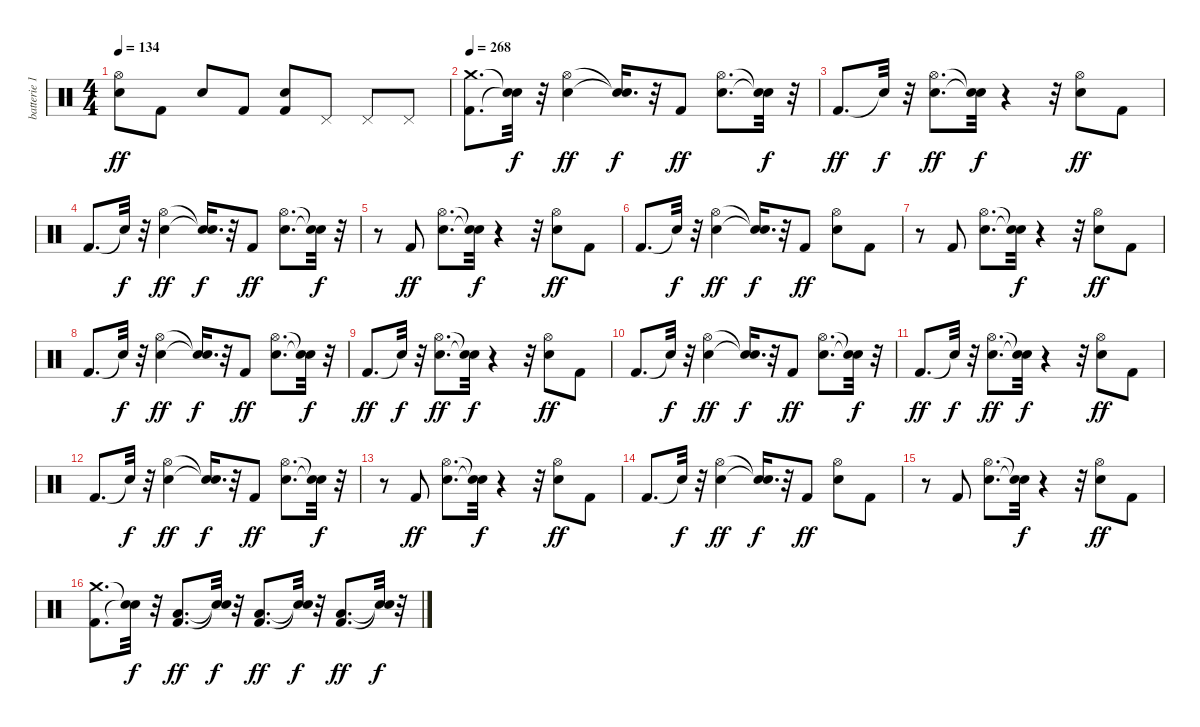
\track ("batterie 1" "batterie 1") {instrument percussion}
\staff {score}
\articulation defaults
\ts (4 4)
\tempo 134
\clef neutral
\ks c
("Electric Snare (hit)" "Hi-Hat (open)").8{dy ff} "Kick (hit) 2".8 "Electric Snare (hit)".8 "Kick (hit) 2".8 ("Kick (hit) 2" "Electric Snare (hit)").8 "Pedal Hi-Hat (hit)".8 "Pedal Hi-Hat (hit)".8 "Pedal Hi-Hat (hit)".8 |
\tempo 268
("Kick (hit) 2" "Crash medium (hit)").8{d} ("Snare (hit)"{t} "Snare (hit)"{t}).32{dy f} r.32 ("Electric Snare (hit)" "Hi-Hat (open)").4{dy ff} ("Snare (hit)"{t} "Snare (hit)"{t}).16{d dy f} r.32 "Kick (hit) 2".8{dy ff} ("Electric Snare (hit)" "Hi-Hat (open)").8{d} ("Snare (hit)"{t} "Snare (hit)"{t}).32{dy f} r.32 |
"Kick (hit) 2".8{d dy ff} "Snare (hit)"{t}.32{dy f} r.32 ("Electric Snare (hit)" "Hi-Hat (open)").8{d dy ff} ("Snare (hit)"{t} "Snare (hit)"{t}).32{dy f} r.4 r.32 ("Electric Snare (hit)" "Hi-Hat (open)").8{dy ff} "Kick (hit) 2".8 |
"Kick (hit) 2".8{d} "Snare (hit)"{t}.32{dy f} r.32 ("Electric Snare (hit)" "Hi-Hat (open)").4{dy ff} ("Snare (hit)"{t} "Snare (hit)"{t}).16{d dy f} r.32 "Kick (hit) 2".8{dy ff} ("Electric Snare (hit)" "Hi-Hat (open)").8{d} ("Snare (hit)"{t} "Snare (hit)"{t}).32{dy f} r.32 |
r.8 "Kick (hit) 2".8{dy ff} ("Electric Snare (hit)" "Hi-Hat (open)").8{d} ("Snare (hit)"{t} "Snare (hit)"{t}).32{dy f} r.4 r.32 ("Electric Snare (hit)" "Hi-Hat (open)").8{dy ff} "Kick (hit) 2".8 |
"Kick (hit) 2".8{d} "Snare (hit)"{t}.32{dy f} r.32 ("Electric Snare (hit)" "Hi-Hat (open)").4{dy ff} ("Snare (hit)"{t} "Snare (hit)"{t}).16{d dy f} r.32 "Kick (hit) 2".8{dy ff} ("Electric Snare (hit)" "Hi-Hat (open)").8 "Kick (hit) 2".8 |
r.8 "Kick (hit) 2".8 ("Electric Snare (hit)" "Hi-Hat (open)").8{d} ("Snare (hit)"{t} "Snare (hit)"{t}).32{dy f} r.4 r.32 ("Electric Snare (hit)" "Hi-Hat (open)").8{dy ff} "Kick (hit) 2".8 |
"Kick (hit) 2".8{d} "Snare (hit)"{t}.32{dy f} r.32 ("Electric Snare (hit)" "Hi-Hat (open)").4{dy ff} ("Snare (hit)"{t} "Snare (hit)"{t}).16{d dy f} r.32 "Kick (hit) 2".8{dy ff} ("Electric Snare (hit)" "Hi-Hat (open)").8{d} ("Snare (hit)"{t} "Snare (hit)"{t}).32{dy f} r.32 |
"Kick (hit) 2".8{d dy ff} "Snare (hit)"{t}.32{dy f} r.32 ("Electric Snare (hit)" "Hi-Hat (open)").8{d dy ff} ("Snare (hit)"{t} "Snare (hit)"{t}).32{dy f} r.4 r.32 ("Electric Snare (hit)" "Hi-Hat (open)").8{dy ff} "Kick (hit) 2".8 |
"Kick (hit) 2".8{d} "Snare (hit)"{t}.32{dy f} r.32 ("Electric Snare (hit)" "Hi-Hat (open)").4{dy ff} ("Snare (hit)"{t} "Snare (hit)"{t}).16{d dy f} r.32 "Kick (hit) 2".8{dy ff} ("Electric Snare (hit)" "Hi-Hat (open)").8{d} ("Snare (hit)"{t} "Snare (hit)"{t}).32{dy f} r.32 |
"Kick (hit) 2".8{d dy ff} "Snare (hit)"{t}.32{dy f} r.32 ("Electric Snare (hit)" "Hi-Hat (open)").8{d dy ff} ("Snare (hit)"{t} "Snare (hit)"{t}).32{dy f} r.4 r.32 ("Electric Snare (hit)" "Hi-Hat (open)").8{dy ff} "Kick (hit) 2".8 |
"Kick (hit) 2".8{d} "Snare (hit)"{t}.32{dy f} r.32 ("Electric Snare (hit)" "Hi-Hat (open)").4{dy ff} ("Snare (hit)"{t} "Snare (hit)"{t}).16{d dy f} r.32 "Kick (hit) 2".8{dy ff} ("Electric Snare (hit)" "Hi-Hat (open)").8{d} ("Snare (hit)"{t} "Snare (hit)"{t}).32{dy f} r.32 |
r.8 "Kick (hit) 2".8{dy ff} ("Electric Snare (hit)" "Hi-Hat (open)").8{d} ("Snare (hit)"{t} "Snare (hit)"{t}).32{dy f} r.4 r.32 ("Electric Snare (hit)" "Hi-Hat (open)").8{dy ff} "Kick (hit) 2".8 |
"Kick (hit) 2".8{d} "Snare (hit)"{t}.32{dy f} r.32 ("Electric Snare (hit)" "Hi-Hat (open)").4{dy ff} ("Snare (hit)"{t} "Snare (hit)"{t}).16{d dy f} r.32 "Kick (hit) 2".8{dy ff} ("Electric Snare (hit)" "Hi-Hat (open)").8 "Kick (hit) 2".8 |
r.8 "Kick (hit) 2".8 ("Electric Snare (hit)" "Hi-Hat (open)").8{d} ("Snare (hit)"{t} "Snare (hit)"{t}).32{dy f} r.4 r.32 ("Electric Snare (hit)" "Hi-Hat (open)").8{dy ff} "Kick (hit) 2".8 |
("Kick (hit) 2" "Crash medium (hit)").8{d} ("Snare (hit)"{t} "Snare (hit)"{t}).32{dy f} r.32 ("Kick (hit) 2" "Low Floor Tom (hit)").8{d dy ff} ("Snare (hit)"{t} "Snare (hit)"{t}).32{dy f} r.32 ("Kick (hit) 2" "Low Floor Tom (hit)").8{d dy ff} ("Snare (hit)"{t} "Snare (hit)"{t}).32{dy f} r.32 ("Kick (hit) 2" "Low Floor Tom (hit)").8{d dy ff} ("Snare (hit)"{t} "Snare (hit)"{t}).32{dy f} r.32
